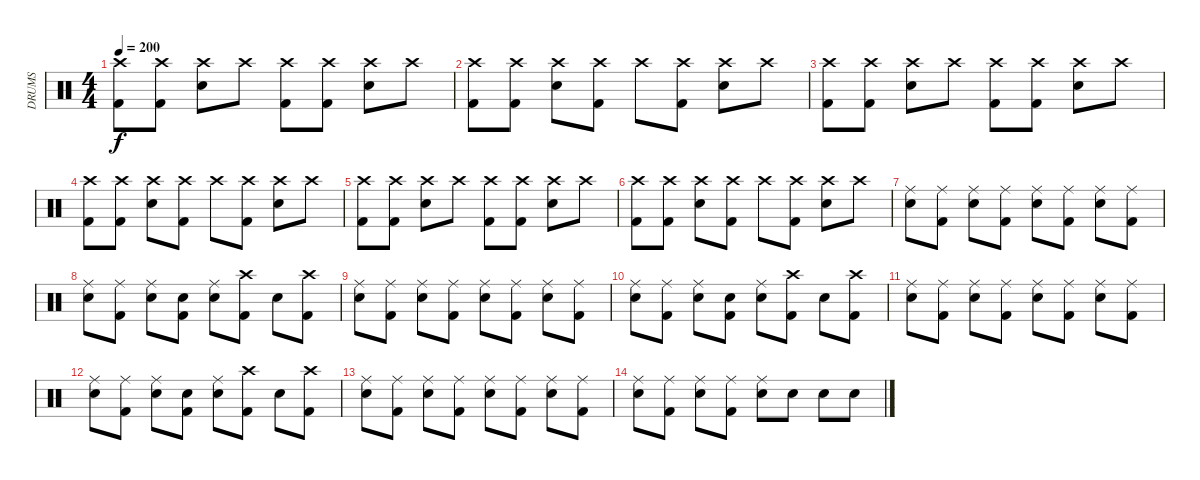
\track ("DRUMS" "DRUMS") {instrument percussion}
\staff {score}
\articulation defaults
\ts (4 4)
\tempo 200
\clef neutral
\ks c
("Crash high (hit)" "Kick (hit) 2").8{dy f} ("Crash high (hit)" "Kick (hit) 2").8 ("Crash high (hit)" "Snare (hit) 2").8 "Crash high (hit)".8 ("Crash high (hit)" "Kick (hit) 2").8 ("Crash high (hit)" "Kick (hit) 2").8 ("Crash high (hit)" "Snare (hit) 2").8 "Crash high (hit)".8 |
("Crash high (hit)" "Kick (hit) 2").8 ("Crash high (hit)" "Kick (hit) 2").8 ("Crash high (hit)" "Snare (hit) 2").8 ("Crash high (hit)" "Kick (hit) 2").8 "Crash high (hit)".8 ("Crash high (hit)" "Kick (hit) 2").8 ("Crash high (hit)" "Snare (hit) 2").8 "Crash high (hit)".8 |
("Crash high (hit)" "Kick (hit) 2").8 ("Crash high (hit)" "Kick (hit) 2").8 ("Crash high (hit)" "Snare (hit) 2").8 "Crash high (hit)".8 ("Crash high (hit)" "Kick (hit) 2").8 ("Crash high (hit)" "Kick (hit) 2").8 ("Crash high (hit)" "Snare (hit) 2").8 "Crash high (hit)".8 |
("Crash high (hit)" "Kick (hit) 2").8 ("Crash high (hit)" "Kick (hit) 2").8 ("Crash high (hit)" "Snare (hit) 2").8 ("Crash high (hit)" "Kick (hit) 2").8 "Crash high (hit)".8 ("Crash high (hit)" "Kick (hit) 2").8 ("Crash high (hit)" "Snare (hit) 2").8 "Crash high (hit)".8 |
("Crash high (hit)" "Kick (hit) 2").8 ("Crash high (hit)" "Kick (hit) 2").8 ("Crash high (hit)" "Snare (hit) 2").8 "Crash high (hit)".8 ("Crash high (hit)" "Kick (hit) 2").8 ("Crash high (hit)" "Kick (hit) 2").8 ("Crash high (hit)" "Snare (hit) 2").8 "Crash high (hit)".8 |
("Crash high (hit)" "Kick (hit) 2").8 ("Crash high (hit)" "Kick (hit) 2").8 ("Crash high (hit)" "Snare (hit) 2").8 ("Crash high (hit)" "Kick (hit) 2").8 "Crash high (hit)".8 ("Crash high (hit)" "Kick (hit) 2").8 ("Crash high (hit)" "Snare (hit) 2").8 "Crash high (hit)".8 |
("Ride (middle)" "Snare (hit) 2").8 ("Ride (middle)" "Kick (hit) 2").8 ("Ride (middle)" "Snare (hit) 2").8 ("Ride (middle)" "Kick (hit) 2").8 ("Ride (middle)" "Snare (hit) 2").8 ("Ride (middle)" "Kick (hit) 2").8 ("Ride (middle)" "Snare (hit) 2").8 ("Ride (middle)" "Kick (hit) 2").8 |
("Ride (middle)" "Snare (hit) 2").8 ("Ride (middle)" "Kick (hit) 2").8 ("Ride (middle)" "Snare (hit) 2").8 ("Snare (hit)" "Kick (hit) 2").8 ("Ride (middle)" "Snare (hit) 2").8 ("Crash high (hit)" "Kick (hit) 2").8 "Snare (hit) 2".8 ("Crash high (hit)" "Kick (hit) 2").8 |
("Ride (middle)" "Snare (hit) 2").8 ("Ride (middle)" "Kick (hit) 2").8 ("Ride (middle)" "Snare (hit) 2").8 ("Ride (middle)" "Kick (hit) 2").8 ("Ride (middle)" "Snare (hit) 2").8 ("Ride (middle)" "Kick (hit) 2").8 ("Ride (middle)" "Snare (hit) 2").8 ("Ride (middle)" "Kick (hit) 2").8 |
("Ride (middle)" "Snare (hit) 2").8 ("Ride (middle)" "Kick (hit) 2").8 ("Ride (middle)" "Snare (hit) 2").8 ("Snare (hit)" "Kick (hit) 2").8 ("Ride (middle)" "Snare (hit) 2").8 ("Crash high (hit)" "Kick (hit) 2").8 "Snare (hit) 2".8 ("Crash high (hit)" "Kick (hit) 2").8 |
("Ride (middle)" "Snare (hit) 2").8 ("Ride (middle)" "Kick (hit) 2").8 ("Ride (middle)" "Snare (hit) 2").8 ("Ride (middle)" "Kick (hit) 2").8 ("Ride (middle)" "Snare (hit) 2").8 ("Ride (middle)" "Kick (hit) 2").8 ("Ride (middle)" "Snare (hit) 2").8 ("Ride (middle)" "Kick (hit) 2").8 |
("Ride (middle)" "Snare (hit) 2").8 ("Ride (middle)" "Kick (hit) 2").8 ("Ride (middle)" "Snare (hit) 2").8 ("Snare (hit)" "Kick (hit) 2").8 ("Ride (middle)" "Snare (hit) 2").8 ("Crash high (hit)" "Kick (hit) 2").8 "Snare (hit) 2".8 ("Crash high (hit)" "Kick (hit) 2").8 |
("Ride (middle)" "Snare (hit) 2").8 ("Ride (middle)" "Kick (hit) 2").8 ("Ride (middle)" "Snare (hit) 2").8 ("Ride (middle)" "Kick (hit) 2").8 ("Ride (middle)" "Snare (hit) 2").8 ("Ride (middle)" "Kick (hit) 2").8 ("Ride (middle)" "Snare (hit) 2").8 ("Ride (middle)" "Kick (hit) 2").8 |
\section ("" "")
("Ride (middle)" "Snare (hit) 2").8 ("Ride (middle)" "Kick (hit) 2").8 ("Ride (middle)" "Snare (hit) 2").8 ("Ride (middle)" "Kick (hit) 2").8 ("Ride (middle)" "Snare (hit) 2").8 "Snare (hit) 2".8 "Snare (hit) 2".8 "Snare (hit) 2".8
